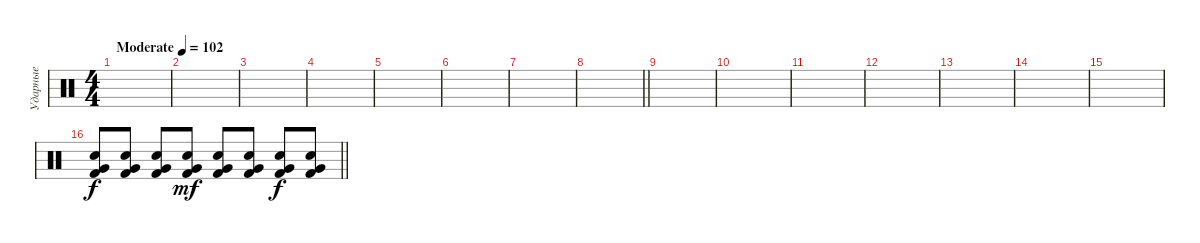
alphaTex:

\track ("Ударные" "Ударные") {instrument percussion}
\staff {score}
\articulation defaults
\ts (4 4)
\tempo (102 "Moderate")
\clef neutral
\ks c
|
|
|
|
|
|
|
\barLineRight lightlight
|
|
|
|
|
|
|
|
\barLineRight lightlight
("Kick (hit) 2" "Electric Snare (hit)" "Very Low Tom (hit)").8 ("Kick (hit) 2" "Electric Snare (hit)" "Very Low Tom (hit)").8 ("Kick (hit) 2" "Electric Snare (hit)" "Very Low Tom (hit)").8 ("Kick (hit) 2" "Electric Snare (hit)" "Very Low Tom (hit)").8{dy mf} ("Kick (hit) 2" "Electric Snare (hit)" "Very Low Tom (hit)").8 ("Kick (hit) 2" "Electric Snare (hit)" "Very Low Tom (hit)").8 ("Kick (hit) 2" "Electric Snare (hit)" "Very Low Tom (hit)").8{dy f} ("Kick (hit) 2" "Electric Snare (hit)" "Very Low Tom (hit)").8
